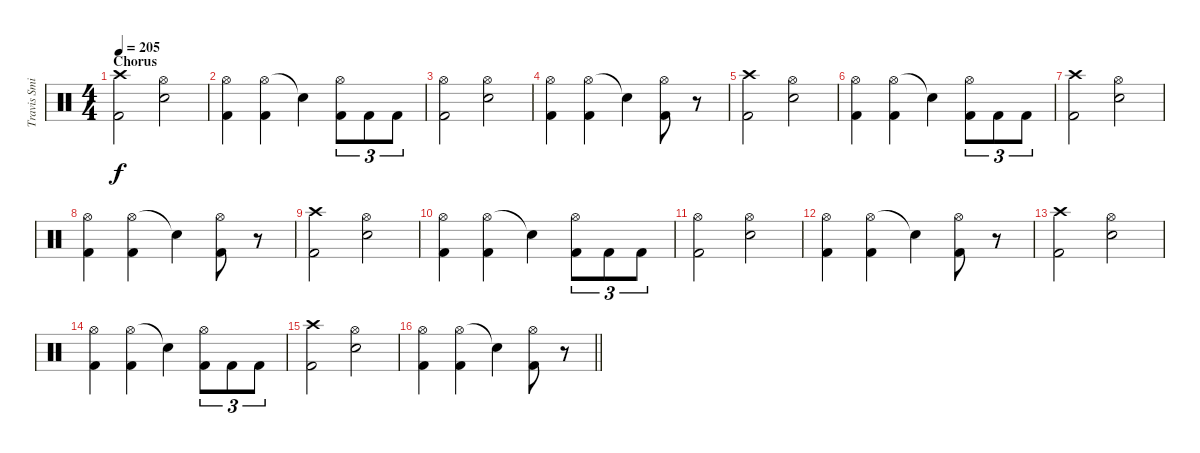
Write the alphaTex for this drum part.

\track ("Travis Smith" "Travis Smi") {instrument percussion}
\staff {score}
\articulation defaults
\ts (4 4)
\section ("" "Chorus")
\tempo 205
\clef neutral
\ks c
("Crash high (hit)" "Kick (hit) 2").2{dy f} ("Hi-Hat (open)" "Snare (hit) 2").2 |
("Hi-Hat (open)" "Kick (hit) 2").4 ("Hi-Hat (open)" "Kick (hit) 2").4 "Snare (hit)"{t}.4 ("Hi-Hat (open)" "Kick (hit) 2").8{tu (3 2)} "Kick (hit) 2".8{tu (3 2)} "Kick (hit) 2".8{tu (3 2)} |
("Hi-Hat (open)" "Kick (hit) 2").2 ("Hi-Hat (open)" "Snare (hit) 2").2 |
("Hi-Hat (open)" "Kick (hit) 2").4 ("Hi-Hat (open)" "Kick (hit) 2").4 "Snare (hit)"{t}.4 ("Hi-Hat (open)" "Kick (hit) 2").8 r.8 |
("Crash high (hit)" "Kick (hit) 2").2 ("Hi-Hat (open)" "Snare (hit) 2").2 |
("Hi-Hat (open)" "Kick (hit) 2").4 ("Hi-Hat (open)" "Kick (hit) 2").4 "Snare (hit)"{t}.4 ("Hi-Hat (open)" "Kick (hit) 2").8{tu (3 2)} "Kick (hit) 2".8{tu (3 2)} "Kick (hit) 2".8{tu (3 2)} |
("Crash high (hit)" "Kick (hit) 2").2 ("Hi-Hat (open)" "Snare (hit) 2").2 |
("Hi-Hat (open)" "Kick (hit) 2").4 ("Hi-Hat (open)" "Kick (hit) 2").4 "Snare (hit)"{t}.4 ("Hi-Hat (open)" "Kick (hit) 2").8 r.8 |
("Crash high (hit)" "Kick (hit) 2").2 ("Hi-Hat (open)" "Snare (hit) 2").2 |
("Hi-Hat (open)" "Kick (hit) 2").4 ("Hi-Hat (open)" "Kick (hit) 2").4 "Snare (hit)"{t}.4 ("Hi-Hat (open)" "Kick (hit) 2").8{tu (3 2)} "Kick (hit) 2".8{tu (3 2)} "Kick (hit) 2".8{tu (3 2)} |
("Hi-Hat (open)" "Kick (hit) 2").2 ("Hi-Hat (open)" "Snare (hit) 2").2 |
("Hi-Hat (open)" "Kick (hit) 2").4 ("Hi-Hat (open)" "Kick (hit) 2").4 "Snare (hit)"{t}.4 ("Hi-Hat (open)" "Kick (hit) 2").8 r.8 |
("Crash high (hit)" "Kick (hit) 2").2 ("Hi-Hat (open)" "Snare (hit) 2").2 |
("Hi-Hat (open)" "Kick (hit) 2").4 ("Hi-Hat (open)" "Kick (hit) 2").4 "Snare (hit)"{t}.4 ("Hi-Hat (open)" "Kick (hit) 2").8{tu (3 2)} "Kick (hit) 2".8{tu (3 2)} "Kick (hit) 2".8{tu (3 2)} |
("Crash high (hit)" "Kick (hit) 2").2 ("Hi-Hat (open)" "Snare (hit) 2").2 |
\barLineRight lightlight
("Hi-Hat (open)" "Kick (hit) 2").4 ("Hi-Hat (open)" "Kick (hit) 2").4 "Snare (hit)"{t}.4 ("Hi-Hat (open)" "Kick (hit) 2").8 r.8
